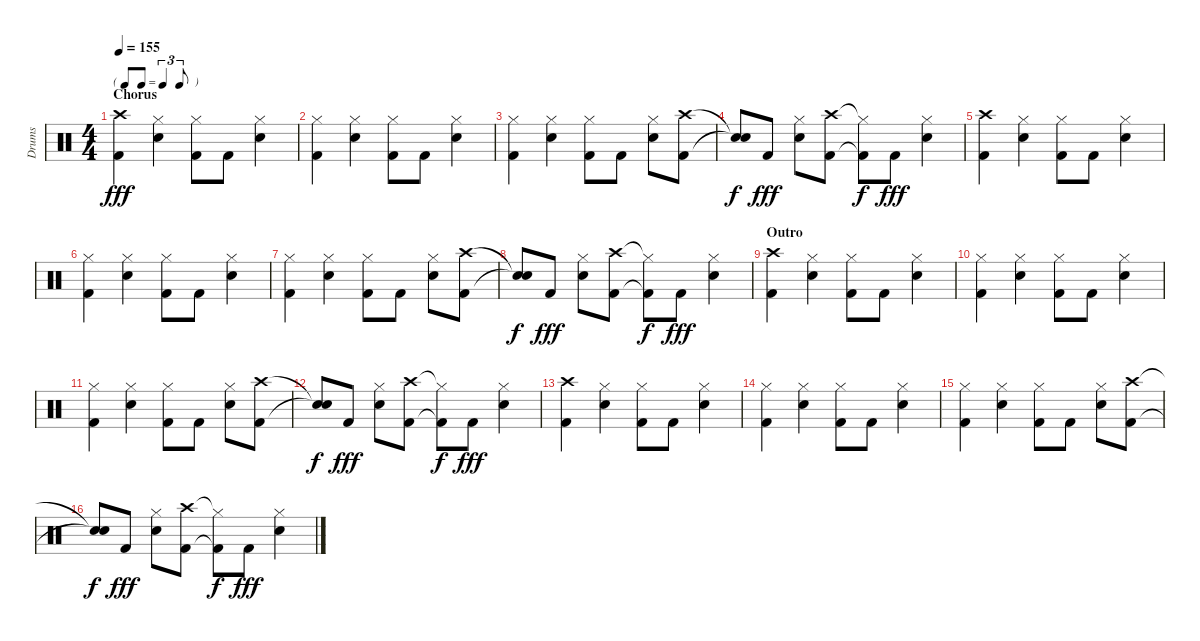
\track ("Drums" "Drums") {instrument percussion}
\staff {score}
\articulation defaults
\ts (4 4)
\tf triplet8th
\section ("" "Chorus")
\tempo 155
\clef neutral
\ks c
("Crash high (hit)" "Kick (hit) 2").4{dy fff} ("Hi-Hat (closed)" "Snare (hit) 2").4 ("Hi-Hat (closed)" "Kick (hit) 2").8 "Kick (hit) 2".8 ("Hi-Hat (closed)" "Snare (hit) 2").4 |
("Hi-Hat (closed)" "Kick (hit) 2").4 ("Hi-Hat (closed)" "Snare (hit) 2").4 ("Hi-Hat (closed)" "Kick (hit) 2").8 "Kick (hit) 2".8 ("Hi-Hat (closed)" "Snare (hit) 2").4 |
("Hi-Hat (closed)" "Kick (hit) 2").4 ("Hi-Hat (closed)" "Snare (hit) 2").4 ("Hi-Hat (closed)" "Kick (hit) 2").8 "Kick (hit) 2".8 ("Hi-Hat (closed)" "Snare (hit) 2").8 ("Crash high (hit)" "Kick (hit) 2").8 |
("Snare (hit)"{t} "Snare (hit)"{t}).8{dy f} "Kick (hit) 2".8{dy fff} ("Hi-Hat (closed)" "Snare (hit) 2").8 ("Crash high (hit)" "Kick (hit) 2").8 ("Hi-Hat (closed)"{t} "Kick (hit) 2"{t}).8{dy f} "Kick (hit) 2".8{dy fff} ("Hi-Hat (closed)" "Snare (hit) 2").4 |
("Crash high (hit)" "Kick (hit) 2").4 ("Hi-Hat (closed)" "Snare (hit) 2").4 ("Hi-Hat (closed)" "Kick (hit) 2").8 "Kick (hit) 2".8 ("Hi-Hat (closed)" "Snare (hit) 2").4 |
("Hi-Hat (closed)" "Kick (hit) 2").4 ("Hi-Hat (closed)" "Snare (hit) 2").4 ("Hi-Hat (closed)" "Kick (hit) 2").8 "Kick (hit) 2".8 ("Hi-Hat (closed)" "Snare (hit) 2").4 |
("Hi-Hat (closed)" "Kick (hit) 2").4 ("Hi-Hat (closed)" "Snare (hit) 2").4 ("Hi-Hat (closed)" "Kick (hit) 2").8 "Kick (hit) 2".8 ("Hi-Hat (closed)" "Snare (hit) 2").8 ("Crash high (hit)" "Kick (hit) 2").8 |
("Snare (hit)"{t} "Snare (hit)"{t}).8{dy f} "Kick (hit) 2".8{dy fff} ("Hi-Hat (closed)" "Snare (hit) 2").8 ("Crash high (hit)" "Kick (hit) 2").8 ("Hi-Hat (closed)"{t} "Kick (hit) 2"{t}).8{dy f} "Kick (hit) 2".8{dy fff} ("Hi-Hat (closed)" "Snare (hit) 2").4 |
\section ("" "Outro")
("Crash high (hit)" "Kick (hit) 2").4 ("Hi-Hat (closed)" "Snare (hit) 2").4 ("Hi-Hat (closed)" "Kick (hit) 2").8 "Kick (hit) 2".8 ("Hi-Hat (closed)" "Snare (hit) 2").4 |
("Hi-Hat (closed)" "Kick (hit) 2").4 ("Hi-Hat (closed)" "Snare (hit) 2").4 ("Hi-Hat (closed)" "Kick (hit) 2").8 "Kick (hit) 2".8 ("Hi-Hat (closed)" "Snare (hit) 2").4 |
("Hi-Hat (closed)" "Kick (hit) 2").4 ("Hi-Hat (closed)" "Snare (hit) 2").4 ("Hi-Hat (closed)" "Kick (hit) 2").8 "Kick (hit) 2".8 ("Hi-Hat (closed)" "Snare (hit) 2").8 ("Crash high (hit)" "Kick (hit) 2").8 |
("Snare (hit)"{t} "Snare (hit)"{t}).8{dy f} "Kick (hit) 2".8{dy fff} ("Hi-Hat (closed)" "Snare (hit) 2").8 ("Crash high (hit)" "Kick (hit) 2").8 ("Hi-Hat (closed)"{t} "Kick (hit) 2"{t}).8{dy f} "Kick (hit) 2".8{dy fff} ("Hi-Hat (closed)" "Snare (hit) 2").4 |
("Crash high (hit)" "Kick (hit) 2").4 ("Hi-Hat (closed)" "Snare (hit) 2").4 ("Hi-Hat (closed)" "Kick (hit) 2").8 "Kick (hit) 2".8 ("Hi-Hat (closed)" "Snare (hit) 2").4 |
("Hi-Hat (closed)" "Kick (hit) 2").4 ("Hi-Hat (closed)" "Snare (hit) 2").4 ("Hi-Hat (closed)" "Kick (hit) 2").8 "Kick (hit) 2".8 ("Hi-Hat (closed)" "Snare (hit) 2").4 |
("Hi-Hat (closed)" "Kick (hit) 2").4 ("Hi-Hat (closed)" "Snare (hit) 2").4 ("Hi-Hat (closed)" "Kick (hit) 2").8 "Kick (hit) 2".8 ("Hi-Hat (closed)" "Snare (hit) 2").8 ("Crash high (hit)" "Kick (hit) 2").8 |
("Snare (hit)"{t} "Snare (hit)"{t}).8{dy f} "Kick (hit) 2".8{dy fff} ("Hi-Hat (closed)" "Snare (hit) 2").8 ("Crash high (hit)" "Kick (hit) 2").8 ("Hi-Hat (closed)"{t} "Kick (hit) 2"{t}).8{dy f} "Kick (hit) 2".8{dy fff} ("Hi-Hat (closed)" "Snare (hit) 2").4
